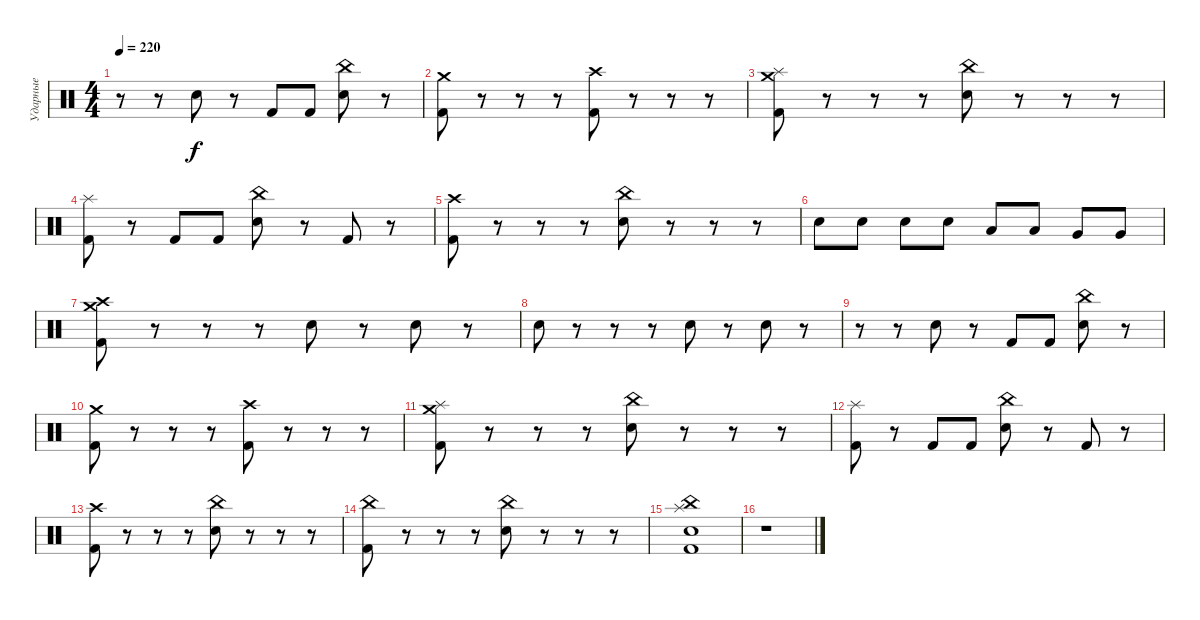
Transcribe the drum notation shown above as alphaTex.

\track ("Ударные" "Ударные") {instrument percussion}
\staff {score}
\articulation defaults
\ts (4 4)
\tempo 220
\clef neutral
\ks c
r.8{dy f} r.8 "Electric Snare (hit)".8 r.8 "Kick (hit) 2".8 "Kick (hit) 2".8 ("Electric Snare (hit)" "China (hit)").8 r.8 |
("Kick (hit) 2" "Crash medium (hit)").8 r.8 r.8 r.8 ("Kick (hit) 2" "Crash high (hit)").8 r.8 r.8 r.8 |
("Kick (hit) 2" "Crash medium (hit)" "Splash (hit)").8 r.8 r.8 r.8 ("Electric Snare (hit)" "China (hit)").8 r.8 r.8 r.8 |
("Kick (hit) 2" "Splash (hit)").8 r.8 "Kick (hit) 2".8 "Kick (hit) 2".8 ("Electric Snare (hit)" "China (hit)").8 r.8 "Kick (hit) 2".8 r.8 |
("Kick (hit) 2" "Crash high (hit)").8 r.8 r.8 r.8 ("Electric Snare (hit)" "China (hit)").8 r.8 r.8 r.8 |
"Electric Snare (hit)".8 "Electric Snare (hit)".8 "Electric Snare (hit)".8 "Electric Snare (hit)".8 "Low Tom (hit)".8 "Low Tom (hit)".8 "Very Low Tom (hit)".8 "Very Low Tom (hit)".8 |
("Kick (hit) 2" "Crash high (hit)" "Crash medium (hit)").8 r.8 r.8 r.8 "Electric Snare (hit)".8 r.8 "Electric Snare (hit)".8 r.8 |
"Electric Snare (hit)".8 r.8 r.8 r.8 "Electric Snare (hit)".8 r.8 "Electric Snare (hit)".8 r.8 |
r.8 r.8 "Electric Snare (hit)".8 r.8 "Kick (hit) 2".8 "Kick (hit) 2".8 ("Electric Snare (hit)" "China (hit)").8 r.8 |
("Kick (hit) 2" "Crash medium (hit)").8 r.8 r.8 r.8 ("Kick (hit) 2" "Crash high (hit)").8 r.8 r.8 r.8 |
("Kick (hit) 2" "Crash medium (hit)" "Splash (hit)").8 r.8 r.8 r.8 ("Electric Snare (hit)" "China (hit)").8 r.8 r.8 r.8 |
("Kick (hit) 2" "Splash (hit)").8 r.8 "Kick (hit) 2".8 "Kick (hit) 2".8 ("Electric Snare (hit)" "China (hit)").8 r.8 "Kick (hit) 2".8 r.8 |
("Kick (hit) 2" "Crash high (hit)").8 r.8 r.8 r.8 ("Electric Snare (hit)" "China (hit)").8 r.8 r.8 r.8 |
("Kick (hit) 2" "China (hit)").8 r.8 r.8 r.8 ("Electric Snare (hit)" "China (hit)").8 r.8 r.8 r.8 |
("Kick (hit) 2" "Electric Snare (hit)" "Splash (hit)" "China (hit)").1 |
r.1
